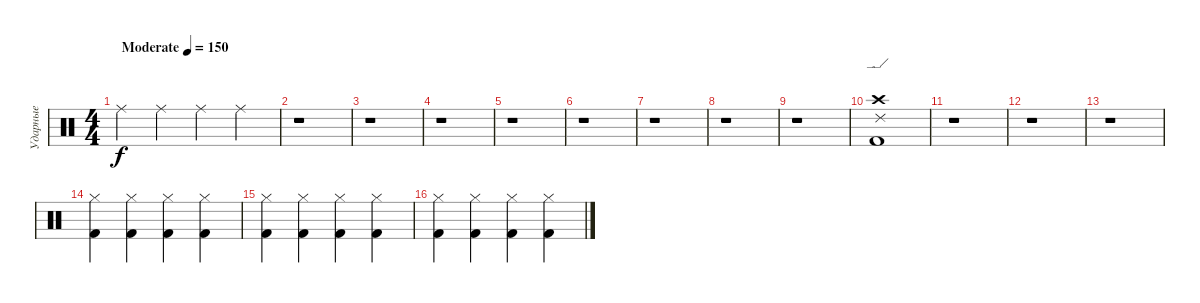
\track ("Ударные" "Ударные") {instrument percussion}
\staff {score}
\articulation defaults
\ts (4 4)
\tempo (150 "Moderate")
\clef neutral
\ks c "Ride (middle)".4{dy f} "Ride (middle)".4 "Ride (middle)".4 "Ride (middle)".4
|
r.1 |
r.1 |
r.1 |
r.1 |
r.1 |
r.1 |
r.1 |
r.1 |
("Kick (hit) 2" "Crash high (hit)" "Ride (edge) 2").1 |
r.1 |
r.1 |
r.1 |
("Kick (hit) 2" "Hi-Hat (closed)").4 ("Kick (hit) 2" "Hi-Hat (closed)").4 ("Kick (hit) 2" "Hi-Hat (closed)").4 ("Kick (hit) 2" "Hi-Hat (closed)").4 |
("Kick (hit) 2" "Hi-Hat (closed)").4 ("Kick (hit) 2" "Hi-Hat (closed)").4 ("Kick (hit) 2" "Hi-Hat (closed)").4 ("Kick (hit) 2" "Hi-Hat (closed)").4 |
("Kick (hit) 2" "Hi-Hat (closed)").4 ("Kick (hit) 2" "Hi-Hat (closed)").4 ("Kick (hit) 2" "Hi-Hat (closed)").4 ("Kick (hit) 2" "Hi-Hat (closed)").4
